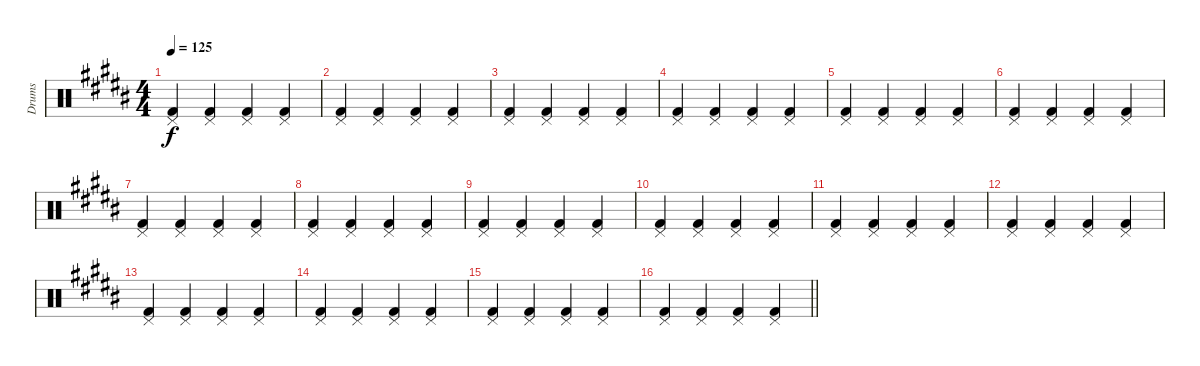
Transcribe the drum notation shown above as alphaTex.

\track ("Drums" "Drums") {instrument percussion}
\staff {score}
\articulation defaults
\ts (4 4)
\tempo 125
\clef neutral
\ks b
("Kick (hit) 2" "Pedal Hi-Hat (hit)").4{dy f} ("Kick (hit) 2" "Pedal Hi-Hat (hit)").4 ("Kick (hit) 2" "Pedal Hi-Hat (hit)").4 ("Kick (hit) 2" "Pedal Hi-Hat (hit)").4 |
("Kick (hit) 2" "Pedal Hi-Hat (hit)").4 ("Kick (hit) 2" "Pedal Hi-Hat (hit)").4 ("Kick (hit) 2" "Pedal Hi-Hat (hit)").4 ("Kick (hit) 2" "Pedal Hi-Hat (hit)").4 |
("Kick (hit) 2" "Pedal Hi-Hat (hit)").4 ("Kick (hit) 2" "Pedal Hi-Hat (hit)").4 ("Kick (hit) 2" "Pedal Hi-Hat (hit)").4 ("Kick (hit) 2" "Pedal Hi-Hat (hit)").4 |
("Kick (hit) 2" "Pedal Hi-Hat (hit)").4 ("Kick (hit) 2" "Pedal Hi-Hat (hit)").4 ("Kick (hit) 2" "Pedal Hi-Hat (hit)").4 ("Kick (hit) 2" "Pedal Hi-Hat (hit)").4 |
("Kick (hit) 2" "Pedal Hi-Hat (hit)").4 ("Kick (hit) 2" "Pedal Hi-Hat (hit)").4 ("Kick (hit) 2" "Pedal Hi-Hat (hit)").4 ("Kick (hit) 2" "Pedal Hi-Hat (hit)").4 |
("Kick (hit) 2" "Pedal Hi-Hat (hit)").4 ("Kick (hit) 2" "Pedal Hi-Hat (hit)").4 ("Kick (hit) 2" "Pedal Hi-Hat (hit)").4 ("Kick (hit) 2" "Pedal Hi-Hat (hit)").4 |
("Kick (hit) 2" "Pedal Hi-Hat (hit)").4 ("Kick (hit) 2" "Pedal Hi-Hat (hit)").4 ("Kick (hit) 2" "Pedal Hi-Hat (hit)").4 ("Kick (hit) 2" "Pedal Hi-Hat (hit)").4 |
("Kick (hit) 2" "Pedal Hi-Hat (hit)").4 ("Kick (hit) 2" "Pedal Hi-Hat (hit)").4 ("Kick (hit) 2" "Pedal Hi-Hat (hit)").4 ("Kick (hit) 2" "Pedal Hi-Hat (hit)").4 |
("Kick (hit) 2" "Pedal Hi-Hat (hit)").4 ("Kick (hit) 2" "Pedal Hi-Hat (hit)").4 ("Kick (hit) 2" "Pedal Hi-Hat (hit)").4 ("Kick (hit) 2" "Pedal Hi-Hat (hit)").4 |
("Kick (hit) 2" "Pedal Hi-Hat (hit)").4 ("Kick (hit) 2" "Pedal Hi-Hat (hit)").4 ("Kick (hit) 2" "Pedal Hi-Hat (hit)").4 ("Kick (hit) 2" "Pedal Hi-Hat (hit)").4 |
("Kick (hit) 2" "Pedal Hi-Hat (hit)").4 ("Kick (hit) 2" "Pedal Hi-Hat (hit)").4 ("Kick (hit) 2" "Pedal Hi-Hat (hit)").4 ("Kick (hit) 2" "Pedal Hi-Hat (hit)").4 |
("Kick (hit) 2" "Pedal Hi-Hat (hit)").4 ("Kick (hit) 2" "Pedal Hi-Hat (hit)").4 ("Kick (hit) 2" "Pedal Hi-Hat (hit)").4 ("Kick (hit) 2" "Pedal Hi-Hat (hit)").4 |
("Kick (hit) 2" "Pedal Hi-Hat (hit)").4 ("Kick (hit) 2" "Pedal Hi-Hat (hit)").4 ("Kick (hit) 2" "Pedal Hi-Hat (hit)").4 ("Kick (hit) 2" "Pedal Hi-Hat (hit)").4 |
("Kick (hit) 2" "Pedal Hi-Hat (hit)").4 ("Kick (hit) 2" "Pedal Hi-Hat (hit)").4 ("Kick (hit) 2" "Pedal Hi-Hat (hit)").4 ("Kick (hit) 2" "Pedal Hi-Hat (hit)").4 |
("Kick (hit) 2" "Pedal Hi-Hat (hit)").4 ("Kick (hit) 2" "Pedal Hi-Hat (hit)").4 ("Kick (hit) 2" "Pedal Hi-Hat (hit)").4 ("Kick (hit) 2" "Pedal Hi-Hat (hit)").4 |
\barLineRight lightlight
("Kick (hit) 2" "Pedal Hi-Hat (hit)").4 ("Kick (hit) 2" "Pedal Hi-Hat (hit)").4 ("Kick (hit) 2" "Pedal Hi-Hat (hit)").4 ("Kick (hit) 2" "Pedal Hi-Hat (hit)").4
